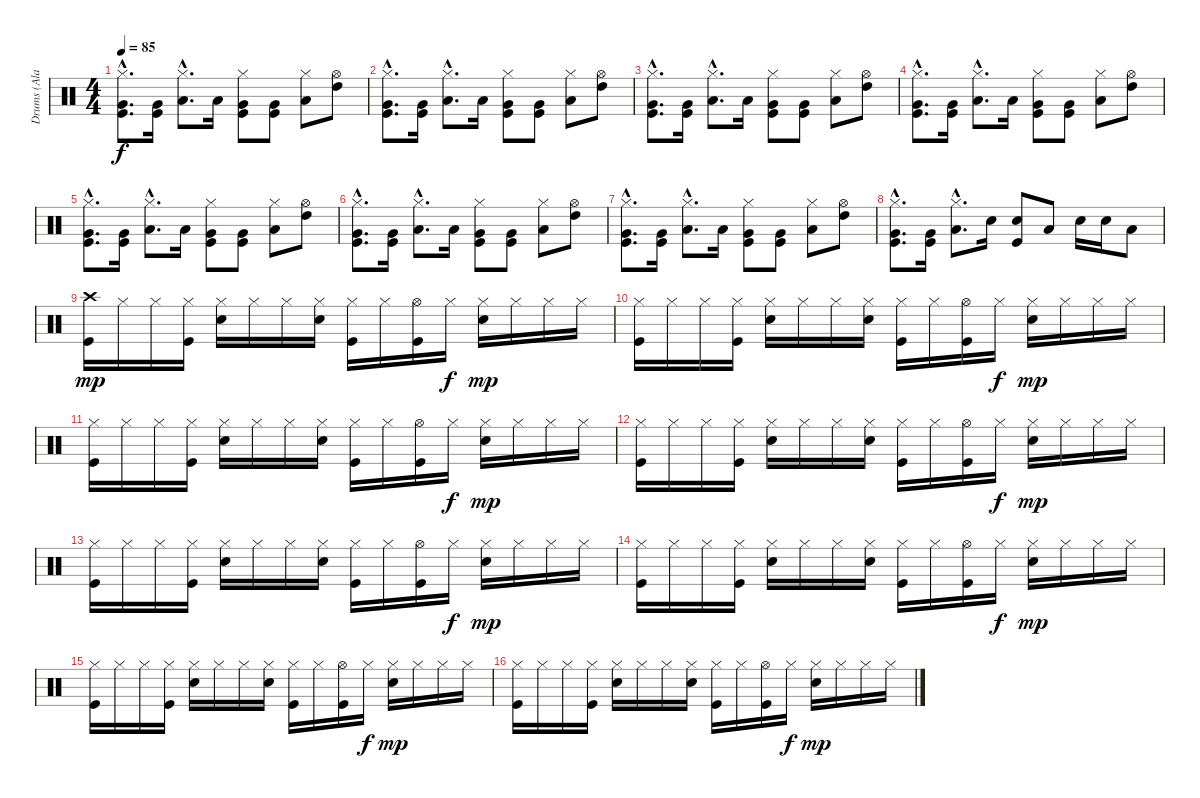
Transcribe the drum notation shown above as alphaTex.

\track ("Drums (Alan White)" "Drums (Ala") {instrument percussion}
\staff {score}
\articulation defaults
\ts (4 4)
\tempo 85
\clef neutral
\ks c
("Hi-Hat (closed)"{hac} "Very Low Tom (hit)"{hac} "Kick (hit)"{hac}).8{d dy f} ("Very Low Tom (hit)" "Kick (hit)").16 ("Hi-Hat (closed)"{hac} "Low Tom (hit)"{hac}).8{d} "Low Tom (hit)".16 ("Hi-Hat (closed)" "Very Low Tom (hit)" "Kick (hit)").8 ("Very Low Tom (hit)" "Kick (hit)").8 ("Hi-Hat (closed)" "Low Tom (hit)").8 ("Hi-Hat (open)" "High Tom (hit)").8 |
("Hi-Hat (closed)"{hac} "Very Low Tom (hit)"{hac} "Kick (hit)"{hac}).8{d} ("Very Low Tom (hit)" "Kick (hit)").16 ("Hi-Hat (closed)"{hac} "Low Tom (hit)"{hac}).8{d} "Low Tom (hit)".16 ("Hi-Hat (closed)" "Very Low Tom (hit)" "Kick (hit)").8 ("Very Low Tom (hit)" "Kick (hit)").8 ("Hi-Hat (closed)" "Low Tom (hit)").8 ("Hi-Hat (open)" "High Tom (hit)").8 |
("Hi-Hat (closed)"{hac} "Very Low Tom (hit)"{hac} "Kick (hit)"{hac}).8{d} ("Very Low Tom (hit)" "Kick (hit)").16 ("Hi-Hat (closed)"{hac} "Low Tom (hit)"{hac}).8{d} "Low Tom (hit)".16 ("Hi-Hat (closed)" "Very Low Tom (hit)" "Kick (hit)").8 ("Very Low Tom (hit)" "Kick (hit)").8 ("Hi-Hat (closed)" "Low Tom (hit)").8 ("Hi-Hat (open)" "High Tom (hit)").8 |
("Hi-Hat (closed)"{hac} "Very Low Tom (hit)"{hac} "Kick (hit)"{hac}).8{d} ("Very Low Tom (hit)" "Kick (hit)").16 ("Hi-Hat (closed)"{hac} "Low Tom (hit)"{hac}).8{d} "Low Tom (hit)".16 ("Hi-Hat (closed)" "Very Low Tom (hit)" "Kick (hit)").8 ("Very Low Tom (hit)" "Kick (hit)").8 ("Hi-Hat (closed)" "Low Tom (hit)").8 ("Hi-Hat (open)" "High Tom (hit)").8 |
("Hi-Hat (closed)"{hac} "Very Low Tom (hit)"{hac} "Kick (hit)"{hac}).8{d} ("Very Low Tom (hit)" "Kick (hit)").16 ("Hi-Hat (closed)"{hac} "Low Tom (hit)"{hac}).8{d} "Low Tom (hit)".16 ("Hi-Hat (closed)" "Very Low Tom (hit)" "Kick (hit)").8 ("Very Low Tom (hit)" "Kick (hit)").8 ("Hi-Hat (closed)" "Low Tom (hit)").8 ("Hi-Hat (open)" "High Tom (hit)").8 |
("Hi-Hat (closed)"{hac} "Very Low Tom (hit)"{hac} "Kick (hit)"{hac}).8{d} ("Very Low Tom (hit)" "Kick (hit)").16 ("Hi-Hat (closed)"{hac} "Low Tom (hit)"{hac}).8{d} "Low Tom (hit)".16 ("Hi-Hat (closed)" "Very Low Tom (hit)" "Kick (hit)").8 ("Very Low Tom (hit)" "Kick (hit)").8 ("Hi-Hat (closed)" "Low Tom (hit)").8 ("Hi-Hat (open)" "High Tom (hit)").8 |
("Hi-Hat (closed)"{hac} "Very Low Tom (hit)"{hac} "Kick (hit)"{hac}).8{d} ("Very Low Tom (hit)" "Kick (hit)").16 ("Hi-Hat (closed)"{hac} "Low Tom (hit)"{hac}).8{d} "Low Tom (hit)".16 ("Hi-Hat (closed)" "Very Low Tom (hit)" "Kick (hit)").8 ("Very Low Tom (hit)" "Kick (hit)").8 ("Hi-Hat (closed)" "Low Tom (hit)").8 ("Hi-Hat (open)" "High Tom (hit)").8 |
("Hi-Hat (closed)"{hac} "Very Low Tom (hit)"{hac} "Kick (hit)"{hac}).8{d} ("Very Low Tom (hit)" "Kick (hit)").16 ("Hi-Hat (closed)"{hac} "Low Tom (hit)"{hac}).8{d} "Snare (hit) 2".16 ("Snare (hit) 2" "Kick (hit)").8 "Low Tom (hit)".8 "Snare (hit) 2".16 "Snare (hit) 2".16 "Low Tom (hit)".8 |
("Crash high (hit)" "Kick (hit)").16{dy mp} "Hi-Hat (closed)".16 "Hi-Hat (closed)".16 ("Hi-Hat (closed)" "Kick (hit)").16 ("Hi-Hat (closed)" "Snare (hit) 2").16 "Hi-Hat (closed)".16 "Hi-Hat (closed)".16 ("Hi-Hat (closed)" "Snare (hit) 2").16 ("Hi-Hat (closed)" "Kick (hit)").16 "Hi-Hat (closed)".16 ("Hi-Hat (open)" "Kick (hit)").16 "Hi-Hat (closed)".16{dy f} ("Hi-Hat (closed)" "Snare (hit) 2").16{dy mp} "Hi-Hat (closed)".16 "Hi-Hat (closed)".16 "Hi-Hat (closed)".16 |
("Hi-Hat (closed)" "Kick (hit)").16 "Hi-Hat (closed)".16 "Hi-Hat (closed)".16 ("Hi-Hat (closed)" "Kick (hit)").16 ("Hi-Hat (closed)" "Snare (hit) 2").16 "Hi-Hat (closed)".16 "Hi-Hat (closed)".16 ("Hi-Hat (closed)" "Snare (hit) 2").16 ("Hi-Hat (closed)" "Kick (hit)").16 "Hi-Hat (closed)".16 ("Hi-Hat (open)" "Kick (hit)").16 "Hi-Hat (closed)".16{dy f} ("Hi-Hat (closed)" "Snare (hit) 2").16{dy mp} "Hi-Hat (closed)".16 "Hi-Hat (closed)".16 "Hi-Hat (closed)".16 |
("Hi-Hat (closed)" "Kick (hit)").16 "Hi-Hat (closed)".16 "Hi-Hat (closed)".16 ("Hi-Hat (closed)" "Kick (hit)").16 ("Hi-Hat (closed)" "Snare (hit) 2").16 "Hi-Hat (closed)".16 "Hi-Hat (closed)".16 ("Hi-Hat (closed)" "Snare (hit) 2").16 ("Hi-Hat (closed)" "Kick (hit)").16 "Hi-Hat (closed)".16 ("Hi-Hat (open)" "Kick (hit)").16 "Hi-Hat (closed)".16{dy f} ("Hi-Hat (closed)" "Snare (hit) 2").16{dy mp} "Hi-Hat (closed)".16 "Hi-Hat (closed)".16 "Hi-Hat (closed)".16 |
("Hi-Hat (closed)" "Kick (hit)").16 "Hi-Hat (closed)".16 "Hi-Hat (closed)".16 ("Hi-Hat (closed)" "Kick (hit)").16 ("Hi-Hat (closed)" "Snare (hit) 2").16 "Hi-Hat (closed)".16 "Hi-Hat (closed)".16 ("Hi-Hat (closed)" "Snare (hit) 2").16 ("Hi-Hat (closed)" "Kick (hit)").16 "Hi-Hat (closed)".16 ("Hi-Hat (open)" "Kick (hit)").16 "Hi-Hat (closed)".16{dy f} ("Hi-Hat (closed)" "Snare (hit) 2").16{dy mp} "Hi-Hat (closed)".16 "Hi-Hat (closed)".16 "Hi-Hat (closed)".16 |
("Hi-Hat (closed)" "Kick (hit)").16 "Hi-Hat (closed)".16 "Hi-Hat (closed)".16 ("Hi-Hat (closed)" "Kick (hit)").16 ("Hi-Hat (closed)" "Snare (hit) 2").16 "Hi-Hat (closed)".16 "Hi-Hat (closed)".16 ("Hi-Hat (closed)" "Snare (hit) 2").16 ("Hi-Hat (closed)" "Kick (hit)").16 "Hi-Hat (closed)".16 ("Hi-Hat (open)" "Kick (hit)").16 "Hi-Hat (closed)".16{dy f} ("Hi-Hat (closed)" "Snare (hit) 2").16{dy mp} "Hi-Hat (closed)".16 "Hi-Hat (closed)".16 "Hi-Hat (closed)".16 |
("Hi-Hat (closed)" "Kick (hit)").16 "Hi-Hat (closed)".16 "Hi-Hat (closed)".16 ("Hi-Hat (closed)" "Kick (hit)").16 ("Hi-Hat (closed)" "Snare (hit) 2").16 "Hi-Hat (closed)".16 "Hi-Hat (closed)".16 ("Hi-Hat (closed)" "Snare (hit) 2").16 ("Hi-Hat (closed)" "Kick (hit)").16 "Hi-Hat (closed)".16 ("Hi-Hat (open)" "Kick (hit)").16 "Hi-Hat (closed)".16{dy f} ("Hi-Hat (closed)" "Snare (hit) 2").16{dy mp} "Hi-Hat (closed)".16 "Hi-Hat (closed)".16 "Hi-Hat (closed)".16 |
("Hi-Hat (closed)" "Kick (hit)").16 "Hi-Hat (closed)".16 "Hi-Hat (closed)".16 ("Hi-Hat (closed)" "Kick (hit)").16 ("Hi-Hat (closed)" "Snare (hit) 2").16 "Hi-Hat (closed)".16 "Hi-Hat (closed)".16 ("Hi-Hat (closed)" "Snare (hit) 2").16 ("Hi-Hat (closed)" "Kick (hit)").16 "Hi-Hat (closed)".16 ("Hi-Hat (open)" "Kick (hit)").16 "Hi-Hat (closed)".16{dy f} ("Hi-Hat (closed)" "Snare (hit) 2").16{dy mp} "Hi-Hat (closed)".16 "Hi-Hat (closed)".16 "Hi-Hat (closed)".16 |
("Hi-Hat (closed)" "Kick (hit)").16 "Hi-Hat (closed)".16 "Hi-Hat (closed)".16 ("Hi-Hat (closed)" "Kick (hit)").16 ("Hi-Hat (closed)" "Snare (hit) 2").16 "Hi-Hat (closed)".16 "Hi-Hat (closed)".16 ("Hi-Hat (closed)" "Snare (hit) 2").16 ("Hi-Hat (closed)" "Kick (hit)").16 "Hi-Hat (closed)".16 ("Hi-Hat (open)" "Kick (hit)").16 "Hi-Hat (closed)".16{dy f} ("Hi-Hat (closed)" "Snare (hit) 2").16{dy mp} "Hi-Hat (closed)".16 "Hi-Hat (closed)".16 "Hi-Hat (closed)".16
